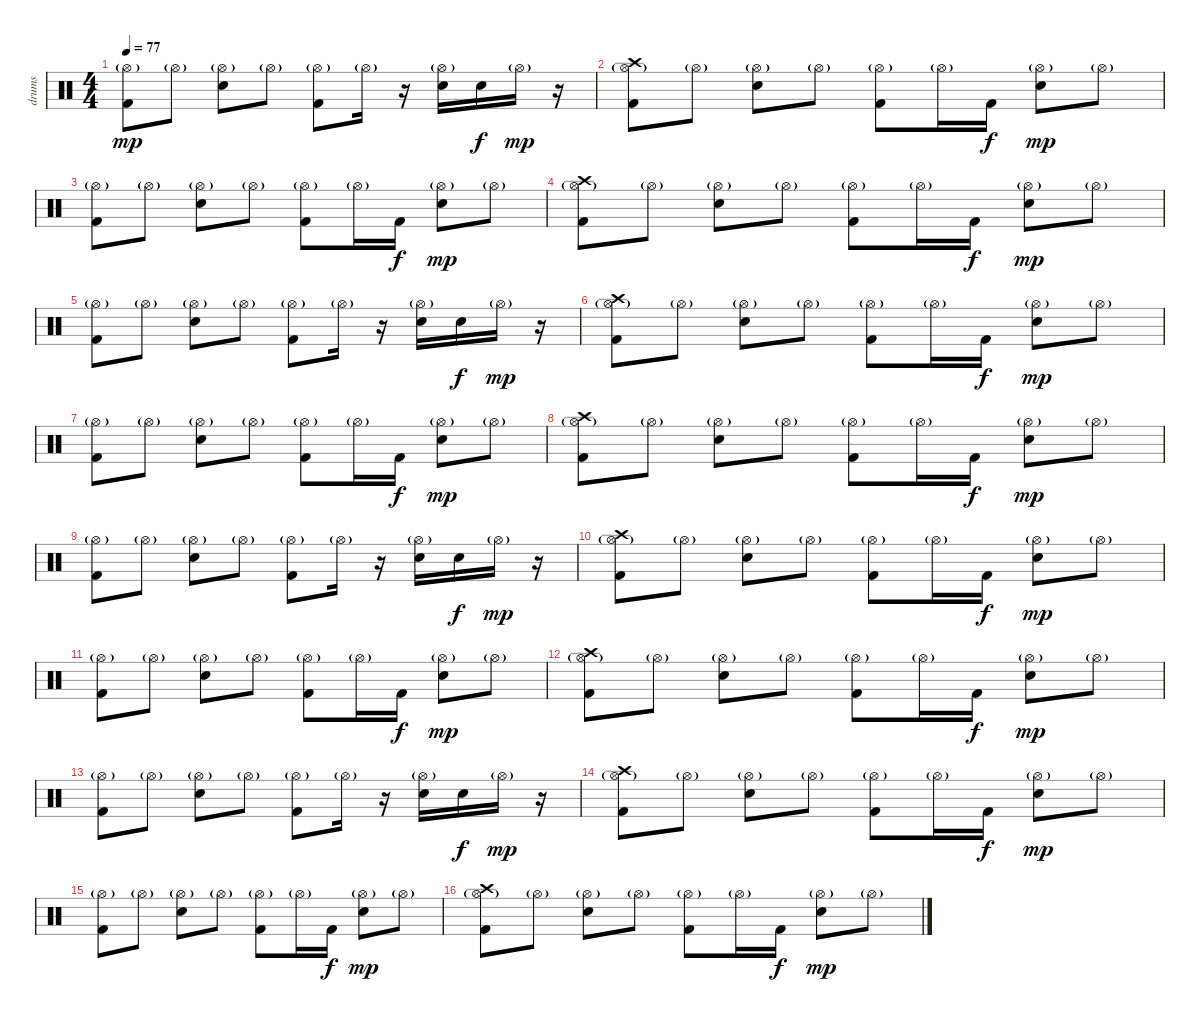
\track ("drums" "drums") {instrument percussion}
\staff {score}
\articulation defaults
\ts (4 4)
\tempo 77
\clef neutral
\ks c
("Kick (hit) 2" "Hi-Hat (open)"{g}).8{dy mp} "Hi-Hat (open)"{g}.8 ("Snare (hit) 2" "Hi-Hat (open)"{g}).8 "Hi-Hat (open)"{g}.8 ("Kick (hit) 2" "Hi-Hat (open)"{g}).8 "Hi-Hat (open)"{g}.16 r.16 ("Snare (hit) 2" "Hi-Hat (open)"{g}).16 "Snare (hit) 2".16{dy f} "Hi-Hat (open)"{g}.16{dy mp} r.16 |
("Kick (hit) 2" "Hi-Hat (open)"{g} "Crash high (hit)").8 "Hi-Hat (open)"{g}.8 ("Snare (hit) 2" "Hi-Hat (open)"{g}).8 "Hi-Hat (open)"{g}.8 ("Kick (hit) 2" "Hi-Hat (open)"{g}).8 "Hi-Hat (open)"{g}.16 "Kick (hit) 2".16{dy f} ("Snare (hit) 2" "Hi-Hat (open)"{g}).8{dy mp} "Hi-Hat (open)"{g}.8 |
("Kick (hit) 2" "Hi-Hat (open)"{g}).8 "Hi-Hat (open)"{g}.8 ("Snare (hit) 2" "Hi-Hat (open)"{g}).8 "Hi-Hat (open)"{g}.8 ("Kick (hit) 2" "Hi-Hat (open)"{g}).8 "Hi-Hat (open)"{g}.16 "Kick (hit) 2".16{dy f} ("Snare (hit) 2" "Hi-Hat (open)"{g}).8{dy mp} "Hi-Hat (open)"{g}.8 |
("Kick (hit) 2" "Hi-Hat (open)"{g} "Crash high (hit)").8 "Hi-Hat (open)"{g}.8 ("Snare (hit) 2" "Hi-Hat (open)"{g}).8 "Hi-Hat (open)"{g}.8 ("Kick (hit) 2" "Hi-Hat (open)"{g}).8 "Hi-Hat (open)"{g}.16 "Kick (hit) 2".16{dy f} ("Snare (hit) 2" "Hi-Hat (open)"{g}).8{dy mp} "Hi-Hat (open)"{g}.8 |
("Kick (hit) 2" "Hi-Hat (open)"{g}).8 "Hi-Hat (open)"{g}.8 ("Snare (hit) 2" "Hi-Hat (open)"{g}).8 "Hi-Hat (open)"{g}.8 ("Kick (hit) 2" "Hi-Hat (open)"{g}).8 "Hi-Hat (open)"{g}.16 r.16 ("Snare (hit) 2" "Hi-Hat (open)"{g}).16 "Snare (hit) 2".16{dy f} "Hi-Hat (open)"{g}.16{dy mp} r.16 |
("Kick (hit) 2" "Hi-Hat (open)"{g} "Crash high (hit)").8 "Hi-Hat (open)"{g}.8 ("Snare (hit) 2" "Hi-Hat (open)"{g}).8 "Hi-Hat (open)"{g}.8 ("Kick (hit) 2" "Hi-Hat (open)"{g}).8 "Hi-Hat (open)"{g}.16 "Kick (hit) 2".16{dy f} ("Snare (hit) 2" "Hi-Hat (open)"{g}).8{dy mp} "Hi-Hat (open)"{g}.8 |
("Kick (hit) 2" "Hi-Hat (open)"{g}).8 "Hi-Hat (open)"{g}.8 ("Snare (hit) 2" "Hi-Hat (open)"{g}).8 "Hi-Hat (open)"{g}.8 ("Kick (hit) 2" "Hi-Hat (open)"{g}).8 "Hi-Hat (open)"{g}.16 "Kick (hit) 2".16{dy f} ("Snare (hit) 2" "Hi-Hat (open)"{g}).8{dy mp} "Hi-Hat (open)"{g}.8 |
("Kick (hit) 2" "Hi-Hat (open)"{g} "Crash high (hit)").8 "Hi-Hat (open)"{g}.8 ("Snare (hit) 2" "Hi-Hat (open)"{g}).8 "Hi-Hat (open)"{g}.8 ("Kick (hit) 2" "Hi-Hat (open)"{g}).8 "Hi-Hat (open)"{g}.16 "Kick (hit) 2".16{dy f} ("Snare (hit) 2" "Hi-Hat (open)"{g}).8{dy mp} "Hi-Hat (open)"{g}.8 |
("Kick (hit) 2" "Hi-Hat (open)"{g}).8 "Hi-Hat (open)"{g}.8 ("Snare (hit) 2" "Hi-Hat (open)"{g}).8 "Hi-Hat (open)"{g}.8 ("Kick (hit) 2" "Hi-Hat (open)"{g}).8 "Hi-Hat (open)"{g}.16 r.16 ("Snare (hit) 2" "Hi-Hat (open)"{g}).16 "Snare (hit) 2".16{dy f} "Hi-Hat (open)"{g}.16{dy mp} r.16 |
("Kick (hit) 2" "Hi-Hat (open)"{g} "Crash high (hit)").8 "Hi-Hat (open)"{g}.8 ("Snare (hit) 2" "Hi-Hat (open)"{g}).8 "Hi-Hat (open)"{g}.8 ("Kick (hit) 2" "Hi-Hat (open)"{g}).8 "Hi-Hat (open)"{g}.16 "Kick (hit) 2".16{dy f} ("Snare (hit) 2" "Hi-Hat (open)"{g}).8{dy mp} "Hi-Hat (open)"{g}.8 |
("Kick (hit) 2" "Hi-Hat (open)"{g}).8 "Hi-Hat (open)"{g}.8 ("Snare (hit) 2" "Hi-Hat (open)"{g}).8 "Hi-Hat (open)"{g}.8 ("Kick (hit) 2" "Hi-Hat (open)"{g}).8 "Hi-Hat (open)"{g}.16 "Kick (hit) 2".16{dy f} ("Snare (hit) 2" "Hi-Hat (open)"{g}).8{dy mp} "Hi-Hat (open)"{g}.8 |
("Kick (hit) 2" "Hi-Hat (open)"{g} "Crash high (hit)").8 "Hi-Hat (open)"{g}.8 ("Snare (hit) 2" "Hi-Hat (open)"{g}).8 "Hi-Hat (open)"{g}.8 ("Kick (hit) 2" "Hi-Hat (open)"{g}).8 "Hi-Hat (open)"{g}.16 "Kick (hit) 2".16{dy f} ("Snare (hit) 2" "Hi-Hat (open)"{g}).8{dy mp} "Hi-Hat (open)"{g}.8 |
("Kick (hit) 2" "Hi-Hat (open)"{g}).8 "Hi-Hat (open)"{g}.8 ("Snare (hit) 2" "Hi-Hat (open)"{g}).8 "Hi-Hat (open)"{g}.8 ("Kick (hit) 2" "Hi-Hat (open)"{g}).8 "Hi-Hat (open)"{g}.16 r.16 ("Snare (hit) 2" "Hi-Hat (open)"{g}).16 "Snare (hit) 2".16{dy f} "Hi-Hat (open)"{g}.16{dy mp} r.16 |
("Kick (hit) 2" "Hi-Hat (open)"{g} "Crash high (hit)").8 "Hi-Hat (open)"{g}.8 ("Snare (hit) 2" "Hi-Hat (open)"{g}).8 "Hi-Hat (open)"{g}.8 ("Kick (hit) 2" "Hi-Hat (open)"{g}).8 "Hi-Hat (open)"{g}.16 "Kick (hit) 2".16{dy f} ("Snare (hit) 2" "Hi-Hat (open)"{g}).8{dy mp} "Hi-Hat (open)"{g}.8 |
("Kick (hit) 2" "Hi-Hat (open)"{g}).8 "Hi-Hat (open)"{g}.8 ("Snare (hit) 2" "Hi-Hat (open)"{g}).8 "Hi-Hat (open)"{g}.8 ("Kick (hit) 2" "Hi-Hat (open)"{g}).8 "Hi-Hat (open)"{g}.16 "Kick (hit) 2".16{dy f} ("Snare (hit) 2" "Hi-Hat (open)"{g}).8{dy mp} "Hi-Hat (open)"{g}.8 |
("Kick (hit) 2" "Hi-Hat (open)"{g} "Crash high (hit)").8 "Hi-Hat (open)"{g}.8 ("Snare (hit) 2" "Hi-Hat (open)"{g}).8 "Hi-Hat (open)"{g}.8 ("Kick (hit) 2" "Hi-Hat (open)"{g}).8 "Hi-Hat (open)"{g}.16 "Kick (hit) 2".16{dy f} ("Snare (hit) 2" "Hi-Hat (open)"{g}).8{dy mp} "Hi-Hat (open)"{g}.8
